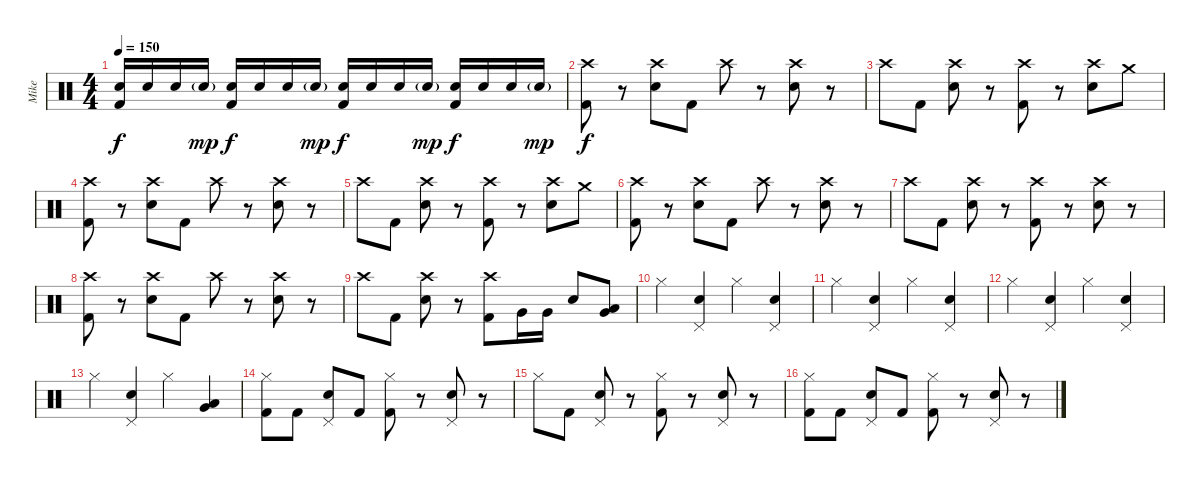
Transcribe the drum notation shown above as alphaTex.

\track ("Mike" "Mike") {instrument percussion}
\staff {score}
\articulation defaults
\ts (4 4)
\tempo 150
\clef neutral
\ks c
("Electric Snare (hit)" "Kick (hit) 2").16{dy f} "Electric Snare (hit)".16 "Electric Snare (hit)".16 "Electric Snare (hit)"{g}.16{dy mp} ("Electric Snare (hit)" "Kick (hit) 2").16{dy f} "Electric Snare (hit)".16 "Electric Snare (hit)".16 "Electric Snare (hit)"{g}.16{dy mp} ("Electric Snare (hit)" "Kick (hit) 2").16{dy f} "Electric Snare (hit)".16 "Electric Snare (hit)".16 "Electric Snare (hit)"{g}.16{dy mp} ("Electric Snare (hit)" "Kick (hit) 2").16{dy f} "Electric Snare (hit)".16 "Electric Snare (hit)".16 "Electric Snare (hit)"{g}.16{dy mp} |
("Crash high (hit)" "Kick (hit) 2").8{dy f} r.8 ("Crash high (hit)" "Electric Snare (hit)").8 "Kick (hit) 2".8 "Crash high (hit)".8 r.8 ("Crash high (hit)" "Electric Snare (hit)").8 r.8 |
"Crash high (hit)".8 "Kick (hit) 2".8 ("Crash high (hit)" "Electric Snare (hit)").8 r.8 ("Crash high (hit)" "Kick (hit) 2").8 r.8 ("Crash high (hit)" "Electric Snare (hit)").8 "Crash medium (hit)".8 |
("Crash high (hit)" "Kick (hit) 2").8 r.8 ("Crash high (hit)" "Electric Snare (hit)").8 "Kick (hit) 2".8 "Crash high (hit)".8 r.8 ("Crash high (hit)" "Electric Snare (hit)").8 r.8 |
"Crash high (hit)".8 "Kick (hit) 2".8 ("Crash high (hit)" "Electric Snare (hit)").8 r.8 ("Crash high (hit)" "Kick (hit) 2").8 r.8 ("Crash high (hit)" "Electric Snare (hit)").8 "Crash medium (hit)".8 |
("Crash high (hit)" "Kick (hit) 2").8 r.8 ("Crash high (hit)" "Electric Snare (hit)").8 "Kick (hit) 2".8 "Crash high (hit)".8 r.8 ("Crash high (hit)" "Electric Snare (hit)").8 r.8 |
"Crash high (hit)".8 "Kick (hit) 2".8 ("Crash high (hit)" "Electric Snare (hit)").8 r.8 ("Crash high (hit)" "Kick (hit) 2").8 r.8 ("Crash high (hit)" "Electric Snare (hit)").8 r.8 |
("Crash high (hit)" "Kick (hit) 2").8 r.8 ("Crash high (hit)" "Electric Snare (hit)").8 "Kick (hit) 2".8 "Crash high (hit)".8 r.8 ("Crash high (hit)" "Electric Snare (hit)").8 r.8 |
"Crash high (hit)".8 "Kick (hit) 2".8 ("Crash high (hit)" "Electric Snare (hit)").8 r.8 ("Crash high (hit)" "Kick (hit) 2").8 "Very Low Tom (hit)".16 "Very Low Tom (hit)".16 "Electric Snare (hit)".8 ("Low Tom (hit)" "Very Low Tom (hit)").8 |
"Hi-Hat (closed)".4 ("Pedal Hi-Hat (hit)" "Electric Snare (hit)").4 "Hi-Hat (closed)".4 ("Pedal Hi-Hat (hit)" "Electric Snare (hit)").4 |
"Hi-Hat (closed)".4 ("Pedal Hi-Hat (hit)" "Electric Snare (hit)").4 "Hi-Hat (closed)".4 ("Pedal Hi-Hat (hit)" "Electric Snare (hit)").4 |
"Hi-Hat (closed)".4 ("Pedal Hi-Hat (hit)" "Electric Snare (hit)").4 "Hi-Hat (closed)".4 ("Pedal Hi-Hat (hit)" "Electric Snare (hit)").4 |
"Hi-Hat (closed)".4 ("Pedal Hi-Hat (hit)" "Electric Snare (hit)").4 "Hi-Hat (closed)".4 ("Very Low Tom (hit)" "Low Tom (hit)").4 |
("Hi-Hat (closed)" "Kick (hit) 2").8 "Kick (hit) 2".8 ("Pedal Hi-Hat (hit)" "Electric Snare (hit)").8 "Kick (hit) 2".8 ("Hi-Hat (closed)" "Kick (hit) 2").8 r.8 ("Pedal Hi-Hat (hit)" "Electric Snare (hit)").8 r.8 |
"Hi-Hat (closed)".8 "Kick (hit) 2".8 ("Pedal Hi-Hat (hit)" "Electric Snare (hit)").8 r.8 ("Hi-Hat (closed)" "Kick (hit) 2").8 r.8 ("Pedal Hi-Hat (hit)" "Electric Snare (hit)").8 r.8 |
("Hi-Hat (closed)" "Kick (hit) 2").8 "Kick (hit) 2".8 ("Pedal Hi-Hat (hit)" "Electric Snare (hit)").8 "Kick (hit) 2".8 ("Hi-Hat (closed)" "Kick (hit) 2").8 r.8 ("Pedal Hi-Hat (hit)" "Electric Snare (hit)").8 r.8
